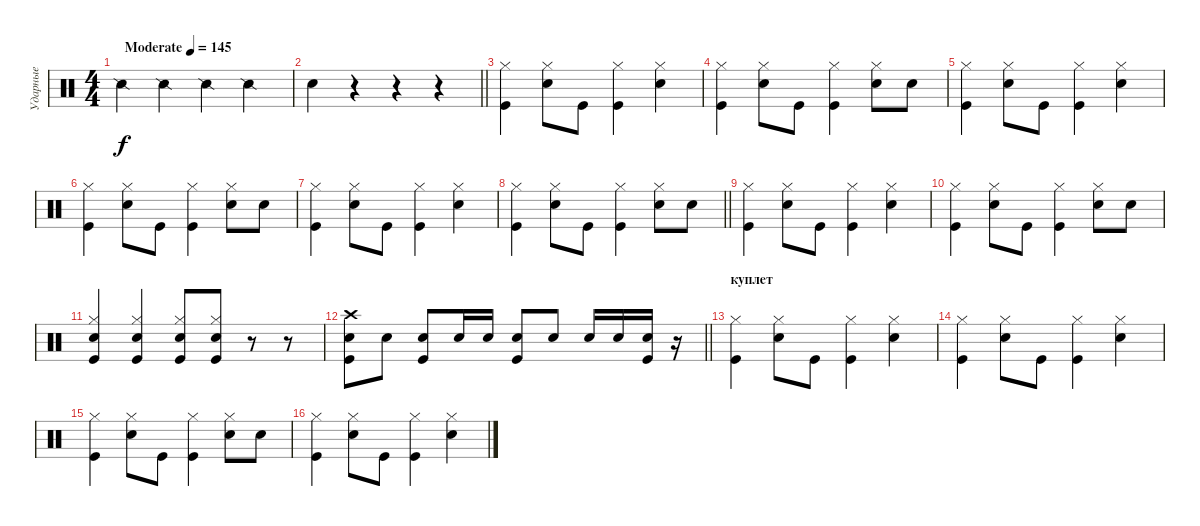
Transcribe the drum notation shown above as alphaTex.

\track ("Ударные" "Ударные") {instrument percussion bank 125}
\staff {score}
\articulation defaults
\ts (4 4)
\tempo (145 "Moderate")
\clef neutral
\ks c "Snare (side stick) 2".4{dy f} "Snare (side stick) 2".4 "Snare (side stick) 2".4 "Snare (side stick) 2".4
|
\barLineRight lightlight "Snare (hit) 2".4
r.4 r.4 r.4 |
("Hi-Hat (closed)" "Kick (hit)").4 ("Hi-Hat (closed)" "Snare (hit) 2").8 "Kick (hit)".8 ("Hi-Hat (closed)" "Kick (hit)").4 ("Hi-Hat (closed)" "Snare (hit) 2").4 |
("Hi-Hat (closed)" "Kick (hit)").4 ("Hi-Hat (closed)" "Snare (hit) 2").8 "Kick (hit)".8 ("Hi-Hat (closed)" "Kick (hit)").4 ("Hi-Hat (closed)" "Snare (hit) 2").8 "Snare (hit) 2".8 |
("Hi-Hat (closed)" "Kick (hit)").4 ("Hi-Hat (closed)" "Snare (hit) 2").8 "Kick (hit)".8 ("Hi-Hat (closed)" "Kick (hit)").4 ("Hi-Hat (closed)" "Snare (hit) 2").4 |
("Hi-Hat (closed)" "Kick (hit)").4 ("Hi-Hat (closed)" "Snare (hit) 2").8 "Kick (hit)".8 ("Hi-Hat (closed)" "Kick (hit)").4 ("Hi-Hat (closed)" "Snare (hit) 2").8 "Snare (hit) 2".8 |
("Hi-Hat (closed)" "Kick (hit)").4 ("Hi-Hat (closed)" "Snare (hit) 2").8 "Kick (hit)".8 ("Hi-Hat (closed)" "Kick (hit)").4 ("Hi-Hat (closed)" "Snare (hit) 2").4 |
\barLineRight lightlight
("Hi-Hat (closed)" "Kick (hit)").4 ("Hi-Hat (closed)" "Snare (hit) 2").8 "Kick (hit)".8 ("Hi-Hat (closed)" "Kick (hit)").4 ("Hi-Hat (closed)" "Snare (hit) 2").8 "Snare (hit) 2".8 |
("Hi-Hat (closed)" "Kick (hit)").4 ("Hi-Hat (closed)" "Snare (hit) 2").8 "Kick (hit)".8 ("Hi-Hat (closed)" "Kick (hit)").4 ("Hi-Hat (closed)" "Snare (hit) 2").4 |
("Hi-Hat (closed)" "Kick (hit)").4 ("Hi-Hat (closed)" "Snare (hit) 2").8 "Kick (hit)".8 ("Hi-Hat (closed)" "Kick (hit)").4 ("Hi-Hat (closed)" "Snare (hit) 2").8 "Snare (hit) 2".8 |
("Hi-Hat (closed)" "Snare (hit) 2" "Kick (hit)").4 ("Hi-Hat (closed)" "Snare (hit) 2" "Kick (hit)").4 ("Hi-Hat (closed)" "Snare (hit) 2" "Kick (hit)").8 ("Hi-Hat (closed)" "Snare (hit) 2" "Kick (hit)").8 r.8 r.8 |
\barLineRight lightlight
("Crash high (hit)" "Snare (hit) 2" "Kick (hit)").8 "Snare (hit) 2".8 ("Snare (hit) 2" "Kick (hit)").8 "Snare (hit) 2".16 "Snare (hit) 2".16 ("Snare (hit) 2" "Kick (hit)").8 "Snare (hit) 2".8 "Snare (hit) 2".16 "Snare (hit) 2".16 ("Snare (hit) 2" "Kick (hit)").16 r.16 |
\section ("" "куплет")
("Hi-Hat (closed)" "Kick (hit)").4 ("Hi-Hat (closed)" "Snare (hit) 2").8 "Kick (hit)".8 ("Hi-Hat (closed)" "Kick (hit)").4 ("Hi-Hat (closed)" "Snare (hit) 2").4 |
("Hi-Hat (closed)" "Kick (hit)").4 ("Hi-Hat (closed)" "Snare (hit) 2").8 "Kick (hit)".8 ("Hi-Hat (closed)" "Kick (hit)").4 ("Hi-Hat (closed)" "Snare (hit) 2").4 |
("Hi-Hat (closed)" "Kick (hit)").4 ("Hi-Hat (closed)" "Snare (hit) 2").8 "Kick (hit)".8 ("Hi-Hat (closed)" "Kick (hit)").4 ("Hi-Hat (closed)" "Snare (hit) 2").8 "Snare (hit) 2".8 |
("Hi-Hat (closed)" "Kick (hit)").4 ("Hi-Hat (closed)" "Snare (hit) 2").8 "Kick (hit)".8 ("Hi-Hat (closed)" "Kick (hit)").4 ("Hi-Hat (closed)" "Snare (hit) 2").4
